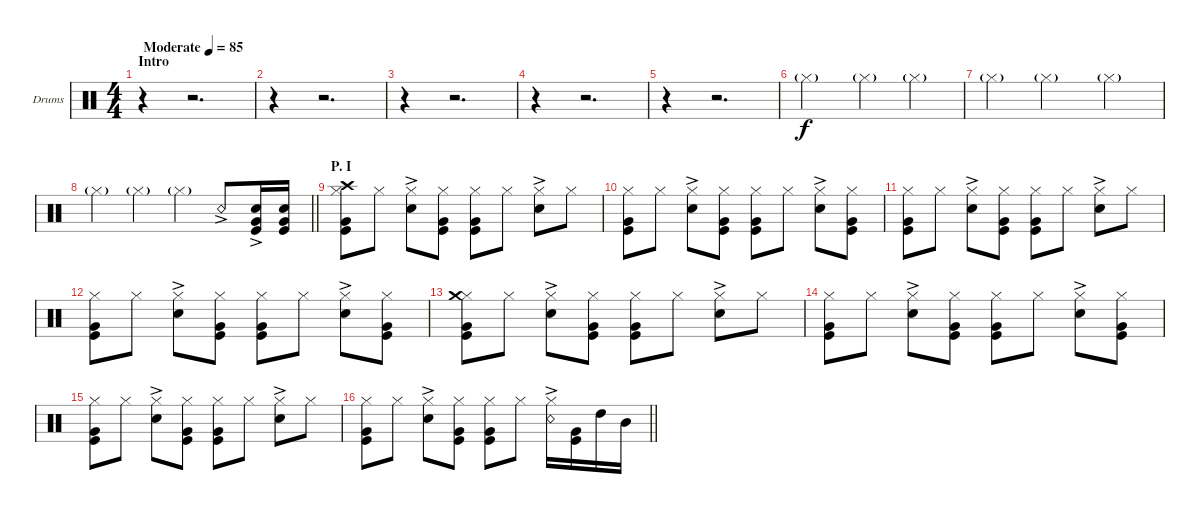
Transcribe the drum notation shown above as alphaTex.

\bracketExtendMode groupsimilarinstruments
\firstSystemTrackNameOrientation horizontal
\otherSystemsTrackNameOrientation horizontal
\track ("Drumkit" "Drums") {instrument percussion}
\staff {score}
\articulation defaults
\ts (4 4)
\beaming (8 2 2 2 2)
\section ("" "Intro")
\tempo (85 "Moderate")
\clef neutral
\ks c
r.4{dy f} r.2{d} |
r.4 r.2{d} |
r.4 r.2{d} |
r.4 r.2{d} |
r.4 r.2{d} |
"Hi-Hat (closed)"{g}.2 "Hi-Hat (closed)"{g}.4 "Hi-Hat (closed)"{g}.4 |
"Hi-Hat (closed)"{g}.4 "Hi-Hat (closed)"{g}.2 "Hi-Hat (closed)"{g}.4 |
\barLineRight lightlight "Hi-Hat (closed)"{g}.4 "Hi-Hat (closed)"{g}.4 "Hi-Hat (closed)"{g}.4 "Snare (rim shot)"{ac}.8
("Snare (hit) 2"{ac} "Kick (hit)" "Very Low Tom (hit)").16 ("Kick (hit)" "Very Low Tom (hit)" "Snare (hit) 2").16 |
\section ("" "P. I")
("Hi-Hat (closed)" "Kick (hit)" "Crash high (hit)" "Very Low Tom (hit)").8 "Hi-Hat (closed)".8 ("Hi-Hat (closed)" "Snare (hit) 2"{ac}).8 ("Hi-Hat (closed)" "Kick (hit)" "Very Low Tom (hit)").8 ("Hi-Hat (closed)" "Kick (hit)" "Very Low Tom (hit)").8 "Hi-Hat (closed)".8 ("Hi-Hat (closed)" "Snare (hit) 2"{ac}).8 "Hi-Hat (closed)".8 |
("Hi-Hat (closed)" "Kick (hit)" "Very Low Tom (hit)").8 "Hi-Hat (closed)".8 ("Hi-Hat (closed)" "Snare (hit) 2"{ac}).8 ("Hi-Hat (closed)" "Kick (hit)" "Very Low Tom (hit)").8 ("Hi-Hat (closed)" "Kick (hit)" "Very Low Tom (hit)").8 "Hi-Hat (closed)".8 ("Hi-Hat (closed)" "Snare (hit) 2"{ac}).8 ("Hi-Hat (closed)" "Kick (hit)" "Very Low Tom (hit)").8 |
("Hi-Hat (closed)" "Kick (hit)" "Very Low Tom (hit)").8 "Hi-Hat (closed)".8 ("Hi-Hat (closed)" "Snare (hit) 2"{ac}).8 ("Hi-Hat (closed)" "Kick (hit)" "Very Low Tom (hit)").8 ("Hi-Hat (closed)" "Kick (hit)" "Very Low Tom (hit)").8 "Hi-Hat (closed)".8 ("Hi-Hat (closed)" "Snare (hit) 2"{ac}).8 "Hi-Hat (closed)".8 |
("Hi-Hat (closed)" "Kick (hit)" "Very Low Tom (hit)").8 "Hi-Hat (closed)".8 ("Hi-Hat (closed)" "Snare (hit) 2"{ac}).8 ("Hi-Hat (closed)" "Kick (hit)" "Very Low Tom (hit)").8 ("Hi-Hat (closed)" "Kick (hit)" "Very Low Tom (hit)").8 "Hi-Hat (closed)".8 ("Hi-Hat (closed)" "Snare (hit) 2"{ac}).8 ("Hi-Hat (closed)" "Kick (hit)" "Very Low Tom (hit)").8 |
("Hi-Hat (closed)" "Kick (hit)" "Crash medium (hit)" "Very Low Tom (hit)").8 "Hi-Hat (closed)".8 ("Hi-Hat (closed)" "Snare (hit) 2"{ac}).8 ("Hi-Hat (closed)" "Kick (hit)" "Very Low Tom (hit)").8 ("Hi-Hat (closed)" "Kick (hit)" "Very Low Tom (hit)").8 "Hi-Hat (closed)".8 ("Hi-Hat (closed)" "Snare (hit) 2"{ac}).8 "Hi-Hat (closed)".8 |
("Hi-Hat (closed)" "Kick (hit)" "Very Low Tom (hit)").8 "Hi-Hat (closed)".8 ("Hi-Hat (closed)" "Snare (hit) 2"{ac}).8 ("Hi-Hat (closed)" "Kick (hit)" "Very Low Tom (hit)").8 ("Hi-Hat (closed)" "Kick (hit)" "Very Low Tom (hit)").8 "Hi-Hat (closed)".8 ("Hi-Hat (closed)" "Snare (hit) 2"{ac}).8 ("Hi-Hat (closed)" "Kick (hit)" "Very Low Tom (hit)").8 |
("Hi-Hat (closed)" "Kick (hit)" "Very Low Tom (hit)").8 "Hi-Hat (closed)".8 ("Hi-Hat (closed)" "Snare (hit) 2"{ac}).8 ("Hi-Hat (closed)" "Kick (hit)" "Very Low Tom (hit)").8 ("Hi-Hat (closed)" "Kick (hit)" "Very Low Tom (hit)").8 "Hi-Hat (closed)".8 ("Hi-Hat (closed)" "Snare (hit) 2"{ac}).8 "Hi-Hat (closed)".8 |
\barLineRight lightlight
("Hi-Hat (closed)" "Kick (hit)" "Very Low Tom (hit)").8 "Hi-Hat (closed)".8 ("Hi-Hat (closed)" "Snare (hit) 2"{ac}).8 ("Hi-Hat (closed)" "Kick (hit)" "Very Low Tom (hit)").8 ("Hi-Hat (closed)" "Kick (hit)" "Very Low Tom (hit)").8 "Hi-Hat (closed)".8 ("Hi-Hat (closed)" "Snare (rim shot)"{ac}).16 ("Kick (hit)" "Very Low Tom (hit)").16 "High Tom (hit)".16 "Mid Tom (hit)".16
